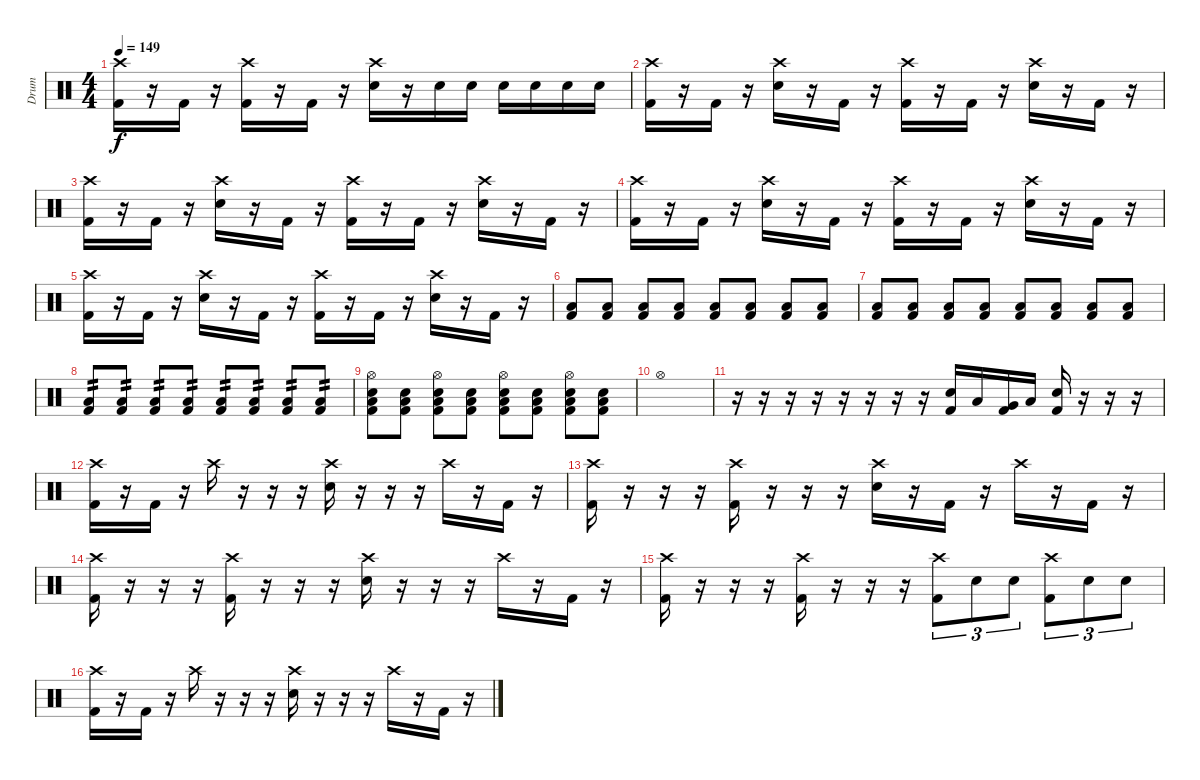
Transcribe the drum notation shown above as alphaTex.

\track ("Drum" "Drum") {instrument percussion}
\staff {score}
\articulation defaults
\ts (4 4)
\tempo 149
\clef neutral
\ks c
("Crash high (hit)" "Kick (hit) 2").16{dy f} r.16 "Kick (hit) 2".16 r.16 ("Crash high (hit)" "Kick (hit) 2").16 r.16 "Kick (hit) 2".16 r.16 ("Crash high (hit)" "Electric Snare (hit)").16 r.16 "Electric Snare (hit)".16 "Electric Snare (hit)".16 "Electric Snare (hit)".16 "Electric Snare (hit)".16 "Electric Snare (hit)".16 "Electric Snare (hit)".16 |
("Crash high (hit)" "Kick (hit) 2").16 r.16 "Kick (hit) 2".16 r.16 ("Crash high (hit)" "Electric Snare (hit)").16 r.16 "Kick (hit) 2".16 r.16 ("Crash high (hit)" "Kick (hit) 2").16 r.16 "Kick (hit) 2".16 r.16 ("Crash high (hit)" "Electric Snare (hit)").16 r.16 "Kick (hit) 2".16 r.16 |
("Crash high (hit)" "Kick (hit) 2").16 r.16 "Kick (hit) 2".16 r.16 ("Crash high (hit)" "Electric Snare (hit)").16 r.16 "Kick (hit) 2".16 r.16 ("Crash high (hit)" "Kick (hit) 2").16 r.16 "Kick (hit) 2".16 r.16 ("Crash high (hit)" "Electric Snare (hit)").16 r.16 "Kick (hit) 2".16 r.16 |
("Crash high (hit)" "Kick (hit) 2").16 r.16 "Kick (hit) 2".16 r.16 ("Crash high (hit)" "Electric Snare (hit)").16 r.16 "Kick (hit) 2".16 r.16 ("Crash high (hit)" "Kick (hit) 2").16 r.16 "Kick (hit) 2".16 r.16 ("Crash high (hit)" "Electric Snare (hit)").16 r.16 "Kick (hit) 2".16 r.16 |
("Crash high (hit)" "Kick (hit) 2").16 r.16 "Kick (hit) 2".16 r.16 ("Crash high (hit)" "Electric Snare (hit)").16 r.16 "Kick (hit) 2".16 r.16 ("Crash high (hit)" "Kick (hit) 2").16 r.16 "Kick (hit) 2".16 r.16 ("Crash high (hit)" "Electric Snare (hit)").16 r.16 "Kick (hit) 2".16 r.16 |
("Low Floor Tom (hit)" "Kick (hit) 2").8{volume 8} ("Low Floor Tom (hit)" "Kick (hit) 2").8 ("Low Floor Tom (hit)" "Kick (hit) 2").8 ("Low Floor Tom (hit)" "Kick (hit) 2").8 ("Low Floor Tom (hit)" "Kick (hit) 2").8 ("Low Floor Tom (hit)" "Kick (hit) 2").8 ("Low Floor Tom (hit)" "Kick (hit) 2").8 ("Low Floor Tom (hit)" "Kick (hit) 2").8 |
("Low Floor Tom (hit)" "Kick (hit) 2").8 ("Low Floor Tom (hit)" "Kick (hit) 2").8 ("Low Floor Tom (hit)" "Kick (hit) 2").8 ("Low Floor Tom (hit)" "Kick (hit) 2").8 ("Low Floor Tom (hit)" "Kick (hit) 2").8 ("Low Floor Tom (hit)" "Kick (hit) 2").8 ("Low Floor Tom (hit)" "Kick (hit) 2").8 ("Low Floor Tom (hit)" "Kick (hit) 2").8 |
("Low Floor Tom (hit)" "Kick (hit) 2").8{tp 2 volume 16} ("Low Floor Tom (hit)" "Kick (hit) 2").8{tp 2} ("Low Floor Tom (hit)" "Kick (hit) 2").8{tp 2} ("Low Floor Tom (hit)" "Kick (hit) 2").8{tp 2} ("Low Floor Tom (hit)" "Kick (hit) 2").8{tp 2} ("Low Floor Tom (hit)" "Kick (hit) 2").8{tp 2} ("Low Floor Tom (hit)" "Kick (hit) 2").8{tp 2} ("Low Floor Tom (hit)" "Kick (hit) 2").8{tp 2} |
("Hi-Hat (open)" "Electric Snare (hit)" "Low Floor Tom (hit)" "Kick (hit) 2").8 ("Electric Snare (hit)" "Low Floor Tom (hit)" "Kick (hit) 2").8 ("Hi-Hat (open)" "Electric Snare (hit)" "Low Floor Tom (hit)" "Kick (hit) 2").8 ("Electric Snare (hit)" "Low Floor Tom (hit)" "Kick (hit) 2").8 ("Hi-Hat (open)" "Electric Snare (hit)" "Low Floor Tom (hit)" "Kick (hit) 2").8 ("Electric Snare (hit)" "Low Floor Tom (hit)" "Kick (hit) 2").8 ("Hi-Hat (open)" "Electric Snare (hit)" "Low Floor Tom (hit)" "Kick (hit) 2").8 ("Electric Snare (hit)" "Low Floor Tom (hit)" "Kick (hit) 2").8 |
"Hi-Hat (open)".1 |
r.16 r.16 r.16 r.16 r.16 r.16 r.16 r.16 ("Electric Snare (hit)" "Kick (hit) 2").16 "Low Tom (hit)".16 ("Very Low Tom (hit)" "Kick (hit) 2").16 "Low Floor Tom (hit)".16 ("Electric Snare (hit)" "Kick (hit) 2").16 r.16 r.16 r.16 |
("Crash high (hit)" "Kick (hit) 2").16 r.16 "Kick (hit) 2".16 r.16 "Crash high (hit)".16 r.16 r.16 r.16 ("Crash high (hit)" "Electric Snare (hit)").16 r.16 r.16 r.16 "Crash high (hit)".16 r.16 "Kick (hit) 2".16 r.16 |
("Crash high (hit)" "Kick (hit) 2").16 r.16 r.16 r.16 ("Crash high (hit)" "Kick (hit) 2").16 r.16 r.16 r.16 ("Crash high (hit)" "Electric Snare (hit)").16 r.16 "Kick (hit) 2".16 r.16 "Crash high (hit)".16 r.16 "Kick (hit) 2".16 r.16 |
("Crash high (hit)" "Kick (hit) 2").16 r.16 r.16 r.16 ("Crash high (hit)" "Kick (hit) 2").16 r.16 r.16 r.16 ("Crash high (hit)" "Electric Snare (hit)").16 r.16 r.16 r.16 "Crash high (hit)".16 r.16 "Kick (hit) 2".16 r.16 |
("Crash high (hit)" "Kick (hit) 2").16 r.16 r.16 r.16 ("Crash high (hit)" "Kick (hit) 2").16 r.16 r.16 r.16 ("Crash high (hit)" "Kick (hit) 2").8{tu (3 2)} "Electric Snare (hit)".8{tu (3 2)} "Electric Snare (hit)".8{tu (3 2)} ("Crash high (hit)" "Kick (hit) 2").8{tu (3 2)} "Electric Snare (hit)".8{tu (3 2)} "Electric Snare (hit)".8{tu (3 2)} |
("Crash high (hit)" "Kick (hit) 2").16 r.16 "Kick (hit) 2".16 r.16 "Crash high (hit)".16 r.16 r.16 r.16 ("Crash high (hit)" "Electric Snare (hit)").16 r.16 r.16 r.16 "Crash high (hit)".16 r.16 "Kick (hit) 2".16 r.16
